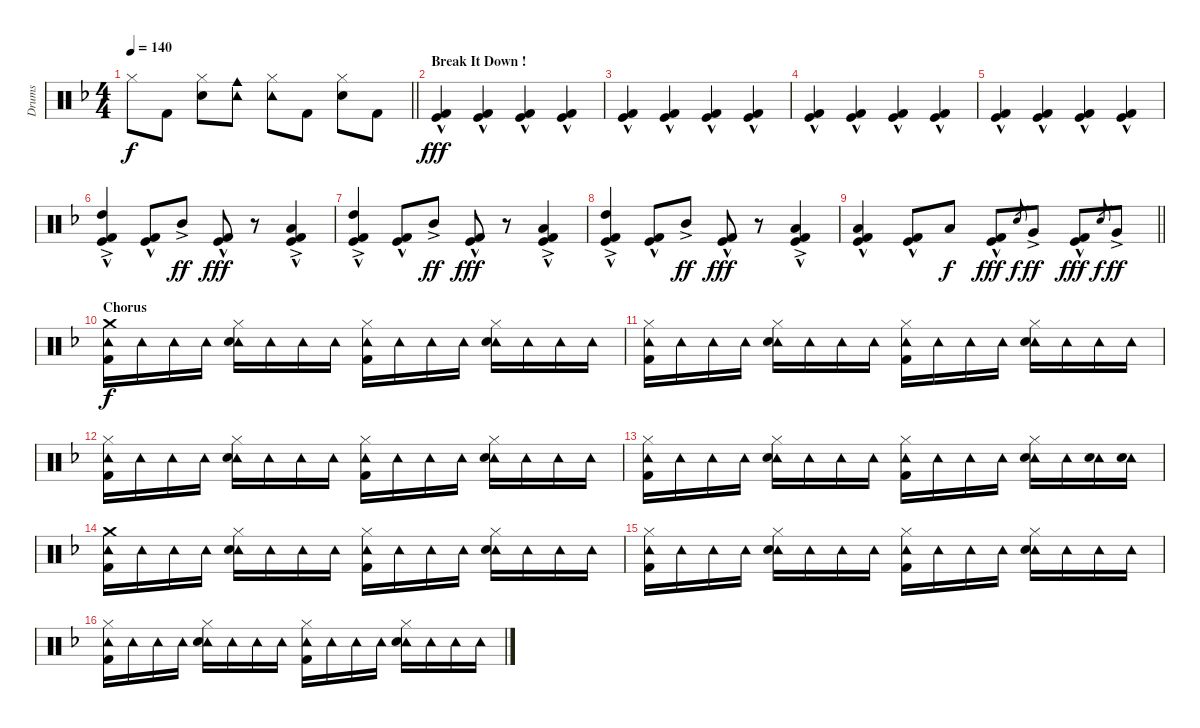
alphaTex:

\track ("Drums" "Drums") {instrument percussion}
\staff {score}
\articulation defaults
\ts (4 4)
\tempo 140
\clef neutral
\barLineRight lightlight
\ks f "Hi-Hat (closed)".8{dy f} "Kick (hit) 2".8
("Hi-Hat (closed)" "Electric Snare (hit)").8 ("Tambourine (hit)" "Cowbell medium (hit)").8 ("Hi-Hat (closed)" "Tambourine (hit)").8 "Kick (hit) 2".8 ("Hi-Hat (closed)" "Electric Snare (hit)").8 "Kick (hit) 2".8 |
\section ("" "Break It Down !")
("Kick (hit)"{hac} "Kick (hit) 2"{hac}).4{dy fff} ("Kick (hit)"{hac} "Kick (hit) 2"{hac}).4 ("Kick (hit)"{hac} "Kick (hit) 2"{hac}).4 ("Kick (hit)"{hac} "Kick (hit) 2"{hac}).4 |
("Kick (hit)"{hac} "Kick (hit) 2"{hac}).4 ("Kick (hit)"{hac} "Kick (hit) 2"{hac}).4 ("Kick (hit)"{hac} "Kick (hit) 2"{hac}).4 ("Kick (hit)"{hac} "Kick (hit) 2"{hac}).4 |
("Kick (hit)"{hac} "Kick (hit) 2"{hac}).4 ("Kick (hit)"{hac} "Kick (hit) 2"{hac}).4 ("Kick (hit)"{hac} "Kick (hit) 2"{hac}).4 ("Kick (hit)"{hac} "Kick (hit) 2"{hac}).4 |
("Kick (hit)"{hac} "Kick (hit) 2"{hac}).4 ("Kick (hit)"{hac} "Kick (hit) 2"{hac}).4 ("Kick (hit)"{hac} "Kick (hit) 2"{hac}).4 ("Kick (hit)"{hac} "Kick (hit) 2"{hac}).4 |
("High Tom (hit)"{ac} "Kick (hit)"{hac} "Kick (hit) 2"{hac}).4 ("Kick (hit)"{hac} "Kick (hit) 2"{hac}).8 "Mid Tom (hit)"{ac}.8{dy ff} ("Kick (hit)"{hac} "Kick (hit) 2"{hac}).8{dy fff} r.8 ("Low Tom (hit)"{ac} "Kick (hit)"{hac} "Kick (hit) 2"{hac}).4 |
("High Tom (hit)"{ac} "Kick (hit)"{hac} "Kick (hit) 2"{hac}).4 ("Kick (hit)"{hac} "Kick (hit) 2"{hac}).8 "Mid Tom (hit)"{ac}.8{dy ff} ("Kick (hit)"{hac} "Kick (hit) 2"{hac}).8{dy fff} r.8 ("Low Tom (hit)"{ac} "Kick (hit)"{hac} "Kick (hit) 2"{hac}).4 |
("High Tom (hit)"{ac} "Kick (hit)"{hac} "Kick (hit) 2"{hac}).4 ("Kick (hit)"{hac} "Kick (hit) 2"{hac}).8 "Mid Tom (hit)"{ac}.8{dy ff} ("Kick (hit)"{hac} "Kick (hit) 2"{hac}).8{dy fff} r.8 ("Low Tom (hit)"{ac} "Kick (hit)"{hac} "Kick (hit) 2"{hac}).4 |
\barLineRight lightlight
("Low Floor Tom (hit)" "Kick (hit)"{hac} "Kick (hit) 2"{hac}).4 ("Kick (hit)"{hac} "Kick (hit) 2"{hac}).8 "Low Floor Tom (hit)".8{dy f} ("Kick (hit)"{hac} "Kick (hit) 2"{hac}).8{dy fff} "Electric Snare (hit)".8{gr dy f} "Very Low Tom (hit)"{ac}.8{dy ff} ("Kick (hit)"{hac} "Kick (hit) 2"{hac}).8{dy fff} "Electric Snare (hit)".8{gr dy f} "Very Low Tom (hit)"{ac}.8{dy ff} |
\section ("" "Chorus")
("Crash medium (hit)" "Tambourine (hit)" "Kick (hit) 2").16{dy f} "Tambourine (hit)".16 "Tambourine (hit)".16 "Tambourine (hit)".16 ("Hi-Hat (closed)" "Tambourine (hit)" "Electric Snare (hit)").16 "Tambourine (hit)".16 "Tambourine (hit)".16 "Tambourine (hit)".16 ("Hi-Hat (closed)" "Tambourine (hit)" "Kick (hit) 2").16 "Tambourine (hit)".16 "Tambourine (hit)".16 "Tambourine (hit)".16 ("Hi-Hat (closed)" "Tambourine (hit)" "Electric Snare (hit)").16 "Tambourine (hit)".16 "Tambourine (hit)".16 "Tambourine (hit)".16 |
("Hi-Hat (closed)" "Tambourine (hit)" "Kick (hit) 2").16 "Tambourine (hit)".16 "Tambourine (hit)".16 "Tambourine (hit)".16 ("Hi-Hat (closed)" "Tambourine (hit)" "Electric Snare (hit)").16 "Tambourine (hit)".16 "Tambourine (hit)".16 "Tambourine (hit)".16 ("Hi-Hat (closed)" "Tambourine (hit)" "Kick (hit) 2").16 "Tambourine (hit)".16 "Tambourine (hit)".16 "Tambourine (hit)".16 ("Hi-Hat (closed)" "Tambourine (hit)" "Electric Snare (hit)").16 "Tambourine (hit)".16 "Tambourine (hit)".16 "Tambourine (hit)".16 |
("Hi-Hat (closed)" "Tambourine (hit)" "Kick (hit) 2").16 "Tambourine (hit)".16 "Tambourine (hit)".16 "Tambourine (hit)".16 ("Hi-Hat (closed)" "Tambourine (hit)" "Electric Snare (hit)").16 "Tambourine (hit)".16 "Tambourine (hit)".16 "Tambourine (hit)".16 ("Hi-Hat (closed)" "Tambourine (hit)" "Kick (hit) 2").16 "Tambourine (hit)".16 "Tambourine (hit)".16 "Tambourine (hit)".16 ("Hi-Hat (closed)" "Tambourine (hit)" "Electric Snare (hit)").16 "Tambourine (hit)".16 "Tambourine (hit)".16 "Tambourine (hit)".16 |
("Hi-Hat (closed)" "Tambourine (hit)" "Kick (hit) 2").16 "Tambourine (hit)".16 "Tambourine (hit)".16 "Tambourine (hit)".16 ("Hi-Hat (closed)" "Tambourine (hit)" "Electric Snare (hit)").16 "Tambourine (hit)".16 "Tambourine (hit)".16 "Tambourine (hit)".16 ("Hi-Hat (closed)" "Tambourine (hit)" "Kick (hit) 2").16 "Tambourine (hit)".16 "Tambourine (hit)".16 "Tambourine (hit)".16 ("Hi-Hat (closed)" "Tambourine (hit)" "Electric Snare (hit)").16 "Tambourine (hit)".16 ("Tambourine (hit)" "Electric Snare (hit)").16 ("Tambourine (hit)" "Electric Snare (hit)").16 |
("Crash medium (hit)" "Tambourine (hit)" "Kick (hit) 2").16 "Tambourine (hit)".16 "Tambourine (hit)".16 "Tambourine (hit)".16 ("Hi-Hat (closed)" "Tambourine (hit)" "Electric Snare (hit)").16 "Tambourine (hit)".16 "Tambourine (hit)".16 "Tambourine (hit)".16 ("Hi-Hat (closed)" "Tambourine (hit)" "Kick (hit) 2").16 "Tambourine (hit)".16 "Tambourine (hit)".16 "Tambourine (hit)".16 ("Hi-Hat (closed)" "Tambourine (hit)" "Electric Snare (hit)").16 "Tambourine (hit)".16 "Tambourine (hit)".16 "Tambourine (hit)".16 |
("Hi-Hat (closed)" "Tambourine (hit)" "Kick (hit) 2").16 "Tambourine (hit)".16 "Tambourine (hit)".16 "Tambourine (hit)".16 ("Hi-Hat (closed)" "Tambourine (hit)" "Electric Snare (hit)").16 "Tambourine (hit)".16 "Tambourine (hit)".16 "Tambourine (hit)".16 ("Hi-Hat (closed)" "Tambourine (hit)" "Kick (hit) 2").16 "Tambourine (hit)".16 "Tambourine (hit)".16 "Tambourine (hit)".16 ("Hi-Hat (closed)" "Tambourine (hit)" "Electric Snare (hit)").16 "Tambourine (hit)".16 "Tambourine (hit)".16 "Tambourine (hit)".16 |
("Hi-Hat (closed)" "Tambourine (hit)" "Kick (hit) 2").16 "Tambourine (hit)".16 "Tambourine (hit)".16 "Tambourine (hit)".16 ("Hi-Hat (closed)" "Tambourine (hit)" "Electric Snare (hit)").16 "Tambourine (hit)".16 "Tambourine (hit)".16 "Tambourine (hit)".16 ("Hi-Hat (closed)" "Tambourine (hit)" "Kick (hit) 2").16 "Tambourine (hit)".16 "Tambourine (hit)".16 "Tambourine (hit)".16 ("Hi-Hat (closed)" "Tambourine (hit)" "Electric Snare (hit)").16 "Tambourine (hit)".16 "Tambourine (hit)".16 "Tambourine (hit)".16
